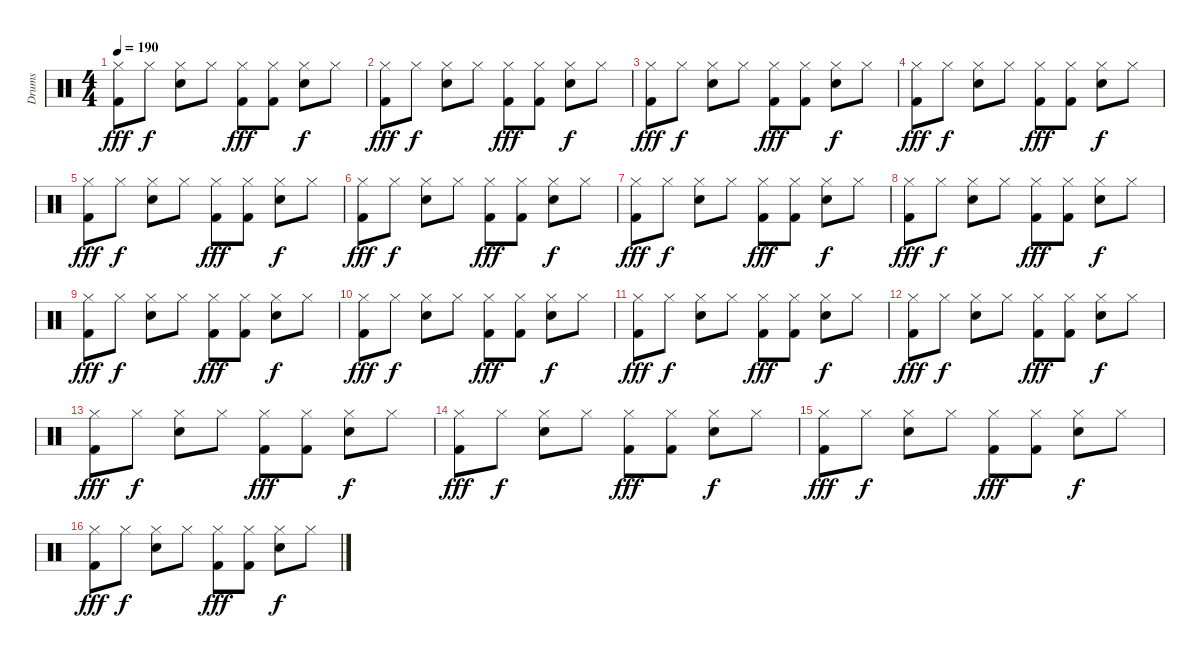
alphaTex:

\track ("Drums" "Drums") {instrument percussion}
\staff {score}
\articulation defaults
\ts (4 4)
\tempo 190
\clef neutral
\ks c
("Hi-Hat (closed)" "Kick (hit) 2").8{dy fff} "Hi-Hat (closed)".8{dy f} ("Hi-Hat (closed)" "Electric Snare (hit)").8 "Hi-Hat (closed)".8 ("Hi-Hat (closed)" "Kick (hit) 2").8{dy fff} ("Hi-Hat (closed)" "Kick (hit) 2").8 ("Hi-Hat (closed)" "Electric Snare (hit)").8{dy f} "Hi-Hat (closed)".8 |
("Hi-Hat (closed)" "Kick (hit) 2").8{dy fff} "Hi-Hat (closed)".8{dy f} ("Hi-Hat (closed)" "Electric Snare (hit)").8 "Hi-Hat (closed)".8 ("Hi-Hat (closed)" "Kick (hit) 2").8{dy fff} ("Hi-Hat (closed)" "Kick (hit) 2").8 ("Hi-Hat (closed)" "Electric Snare (hit)").8{dy f} "Hi-Hat (closed)".8 |
("Hi-Hat (closed)" "Kick (hit) 2").8{dy fff} "Hi-Hat (closed)".8{dy f} ("Hi-Hat (closed)" "Electric Snare (hit)").8 "Hi-Hat (closed)".8 ("Hi-Hat (closed)" "Kick (hit) 2").8{dy fff} ("Hi-Hat (closed)" "Kick (hit) 2").8 ("Hi-Hat (closed)" "Electric Snare (hit)").8{dy f} "Hi-Hat (closed)".8 |
("Hi-Hat (closed)" "Kick (hit) 2").8{dy fff} "Hi-Hat (closed)".8{dy f} ("Hi-Hat (closed)" "Electric Snare (hit)").8 "Hi-Hat (closed)".8 ("Hi-Hat (closed)" "Kick (hit) 2").8{dy fff} ("Hi-Hat (closed)" "Kick (hit) 2").8 ("Hi-Hat (closed)" "Electric Snare (hit)").8{dy f} "Hi-Hat (closed)".8 |
("Hi-Hat (closed)" "Kick (hit) 2").8{dy fff} "Hi-Hat (closed)".8{dy f} ("Hi-Hat (closed)" "Electric Snare (hit)").8 "Hi-Hat (closed)".8 ("Hi-Hat (closed)" "Kick (hit) 2").8{dy fff} ("Hi-Hat (closed)" "Kick (hit) 2").8 ("Hi-Hat (closed)" "Electric Snare (hit)").8{dy f} "Hi-Hat (closed)".8 |
("Hi-Hat (closed)" "Kick (hit) 2").8{dy fff} "Hi-Hat (closed)".8{dy f} ("Hi-Hat (closed)" "Electric Snare (hit)").8 "Hi-Hat (closed)".8 ("Hi-Hat (closed)" "Kick (hit) 2").8{dy fff} ("Hi-Hat (closed)" "Kick (hit) 2").8 ("Hi-Hat (closed)" "Electric Snare (hit)").8{dy f} "Hi-Hat (closed)".8 |
("Hi-Hat (closed)" "Kick (hit) 2").8{dy fff} "Hi-Hat (closed)".8{dy f} ("Hi-Hat (closed)" "Electric Snare (hit)").8 "Hi-Hat (closed)".8 ("Hi-Hat (closed)" "Kick (hit) 2").8{dy fff} ("Hi-Hat (closed)" "Kick (hit) 2").8 ("Hi-Hat (closed)" "Electric Snare (hit)").8{dy f} "Hi-Hat (closed)".8 |
("Hi-Hat (closed)" "Kick (hit) 2").8{dy fff} "Hi-Hat (closed)".8{dy f} ("Hi-Hat (closed)" "Electric Snare (hit)").8 "Hi-Hat (closed)".8 ("Hi-Hat (closed)" "Kick (hit) 2").8{dy fff} ("Hi-Hat (closed)" "Kick (hit) 2").8 ("Hi-Hat (closed)" "Electric Snare (hit)").8{dy f} "Hi-Hat (closed)".8 |
("Hi-Hat (closed)" "Kick (hit) 2").8{dy fff} "Hi-Hat (closed)".8{dy f} ("Hi-Hat (closed)" "Electric Snare (hit)").8 "Hi-Hat (closed)".8 ("Hi-Hat (closed)" "Kick (hit) 2").8{dy fff} ("Hi-Hat (closed)" "Kick (hit) 2").8 ("Hi-Hat (closed)" "Electric Snare (hit)").8{dy f} "Hi-Hat (closed)".8 |
("Hi-Hat (closed)" "Kick (hit) 2").8{dy fff} "Hi-Hat (closed)".8{dy f} ("Hi-Hat (closed)" "Electric Snare (hit)").8 "Hi-Hat (closed)".8 ("Hi-Hat (closed)" "Kick (hit) 2").8{dy fff} ("Hi-Hat (closed)" "Kick (hit) 2").8 ("Hi-Hat (closed)" "Electric Snare (hit)").8{dy f} "Hi-Hat (closed)".8 |
("Hi-Hat (closed)" "Kick (hit) 2").8{dy fff} "Hi-Hat (closed)".8{dy f} ("Hi-Hat (closed)" "Electric Snare (hit)").8 "Hi-Hat (closed)".8 ("Hi-Hat (closed)" "Kick (hit) 2").8{dy fff} ("Hi-Hat (closed)" "Kick (hit) 2").8 ("Hi-Hat (closed)" "Electric Snare (hit)").8{dy f} "Hi-Hat (closed)".8 |
("Hi-Hat (closed)" "Kick (hit) 2").8{dy fff} "Hi-Hat (closed)".8{dy f} ("Hi-Hat (closed)" "Electric Snare (hit)").8 "Hi-Hat (closed)".8 ("Hi-Hat (closed)" "Kick (hit) 2").8{dy fff} ("Hi-Hat (closed)" "Kick (hit) 2").8 ("Hi-Hat (closed)" "Electric Snare (hit)").8{dy f} "Hi-Hat (closed)".8 |
("Hi-Hat (closed)" "Kick (hit) 2").8{dy fff} "Hi-Hat (closed)".8{dy f} ("Hi-Hat (closed)" "Electric Snare (hit)").8 "Hi-Hat (closed)".8 ("Hi-Hat (closed)" "Kick (hit) 2").8{dy fff} ("Hi-Hat (closed)" "Kick (hit) 2").8 ("Hi-Hat (closed)" "Electric Snare (hit)").8{dy f} "Hi-Hat (closed)".8 |
("Hi-Hat (closed)" "Kick (hit) 2").8{dy fff} "Hi-Hat (closed)".8{dy f} ("Hi-Hat (closed)" "Electric Snare (hit)").8 "Hi-Hat (closed)".8 ("Hi-Hat (closed)" "Kick (hit) 2").8{dy fff} ("Hi-Hat (closed)" "Kick (hit) 2").8 ("Hi-Hat (closed)" "Electric Snare (hit)").8{dy f} "Hi-Hat (closed)".8 |
("Hi-Hat (closed)" "Kick (hit) 2").8{dy fff} "Hi-Hat (closed)".8{dy f} ("Hi-Hat (closed)" "Electric Snare (hit)").8 "Hi-Hat (closed)".8 ("Hi-Hat (closed)" "Kick (hit) 2").8{dy fff} ("Hi-Hat (closed)" "Kick (hit) 2").8 ("Hi-Hat (closed)" "Electric Snare (hit)").8{dy f} "Hi-Hat (closed)".8 |
("Hi-Hat (closed)" "Kick (hit) 2").8{dy fff} "Hi-Hat (closed)".8{dy f} ("Hi-Hat (closed)" "Electric Snare (hit)").8 "Hi-Hat (closed)".8 ("Hi-Hat (closed)" "Kick (hit) 2").8{dy fff} ("Hi-Hat (closed)" "Kick (hit) 2").8 ("Hi-Hat (closed)" "Electric Snare (hit)").8{dy f} "Hi-Hat (closed)".8
